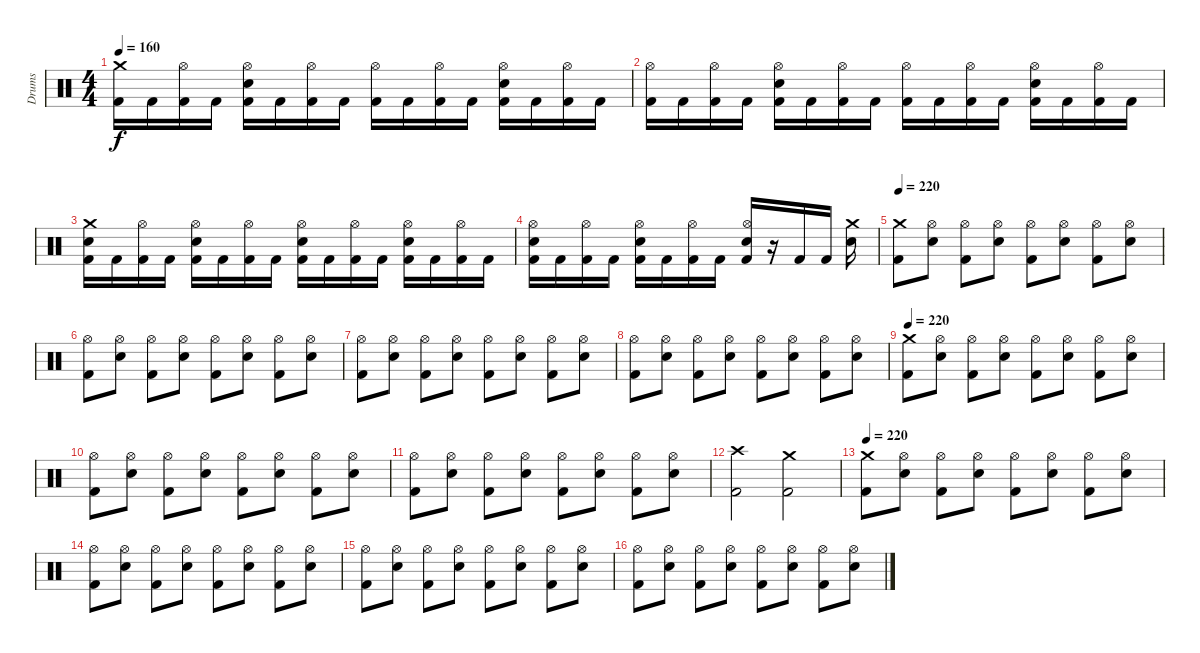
\track ("Drums" "Drums") {instrument percussion}
\staff {score}
\articulation defaults
\ts (4 4)
\tempo 160
\clef neutral
\ks c
("Crash medium (hit)" "Kick (hit) 2").16{dy f} "Kick (hit) 2".16 ("Hi-Hat (open)" "Kick (hit) 2").16 "Kick (hit) 2".16 ("Hi-Hat (open)" "Snare (hit) 2" "Kick (hit) 2").16 "Kick (hit) 2".16 ("Hi-Hat (open)" "Kick (hit) 2").16 "Kick (hit) 2".16 ("Hi-Hat (open)" "Kick (hit) 2").16 "Kick (hit) 2".16 ("Hi-Hat (open)" "Kick (hit) 2").16 "Kick (hit) 2".16 ("Hi-Hat (open)" "Snare (hit) 2" "Kick (hit) 2").16 "Kick (hit) 2".16 ("Hi-Hat (open)" "Kick (hit) 2").16 "Kick (hit) 2".16 |
("Hi-Hat (open)" "Kick (hit) 2").16 "Kick (hit) 2".16 ("Hi-Hat (open)" "Kick (hit) 2").16 "Kick (hit) 2".16 ("Hi-Hat (open)" "Snare (hit) 2" "Kick (hit) 2").16 "Kick (hit) 2".16 ("Hi-Hat (open)" "Kick (hit) 2").16 "Kick (hit) 2".16 ("Hi-Hat (open)" "Kick (hit) 2").16 "Kick (hit) 2".16 ("Hi-Hat (open)" "Kick (hit) 2").16 "Kick (hit) 2".16 ("Hi-Hat (open)" "Snare (hit) 2" "Kick (hit) 2").16 "Kick (hit) 2".16 ("Hi-Hat (open)" "Kick (hit) 2").16 "Kick (hit) 2".16 |
("Crash medium (hit)" "Snare (hit) 2" "Kick (hit) 2").16 "Kick (hit) 2".16 ("Hi-Hat (open)" "Kick (hit) 2").16 "Kick (hit) 2".16 ("Hi-Hat (open)" "Snare (hit) 2" "Kick (hit) 2").16 "Kick (hit) 2".16 ("Hi-Hat (open)" "Kick (hit) 2").16 "Kick (hit) 2".16 ("Hi-Hat (open)" "Snare (hit) 2" "Kick (hit) 2").16 "Kick (hit) 2".16 ("Hi-Hat (open)" "Kick (hit) 2").16 "Kick (hit) 2".16 ("Hi-Hat (open)" "Snare (hit) 2" "Kick (hit) 2").16 "Kick (hit) 2".16 ("Hi-Hat (open)" "Kick (hit) 2").16 "Kick (hit) 2".16 |
("Hi-Hat (open)" "Snare (hit) 2" "Kick (hit) 2").16 "Kick (hit) 2".16 ("Hi-Hat (open)" "Kick (hit) 2").16 "Kick (hit) 2".16 ("Hi-Hat (open)" "Snare (hit) 2" "Kick (hit) 2").16 "Kick (hit) 2".16 ("Hi-Hat (open)" "Kick (hit) 2").16 "Kick (hit) 2".16 ("Hi-Hat (open)" "Snare (hit) 2" "Kick (hit) 2").16 r.16 "Kick (hit) 2".16 "Kick (hit) 2".16 ("Crash medium (hit)" "Snare (hit) 2").16 |
\tempo 220
("Crash medium (hit)" "Kick (hit) 2").8 ("Hi-Hat (open)" "Snare (hit) 2").8 ("Hi-Hat (open)" "Kick (hit) 2").8 ("Hi-Hat (open)" "Snare (hit) 2").8 ("Hi-Hat (open)" "Kick (hit) 2").8 ("Hi-Hat (open)" "Snare (hit) 2").8 ("Hi-Hat (open)" "Kick (hit) 2").8 ("Hi-Hat (open)" "Snare (hit) 2").8 |
("Hi-Hat (open)" "Kick (hit) 2").8 ("Hi-Hat (open)" "Snare (hit) 2").8 ("Hi-Hat (open)" "Kick (hit) 2").8 ("Hi-Hat (open)" "Snare (hit) 2").8 ("Hi-Hat (open)" "Kick (hit) 2").8 ("Hi-Hat (open)" "Snare (hit) 2").8 ("Hi-Hat (open)" "Kick (hit) 2").8 ("Hi-Hat (open)" "Snare (hit) 2").8 |
("Hi-Hat (open)" "Kick (hit) 2").8 ("Hi-Hat (open)" "Snare (hit) 2").8 ("Hi-Hat (open)" "Kick (hit) 2").8 ("Hi-Hat (open)" "Snare (hit) 2").8 ("Hi-Hat (open)" "Kick (hit) 2").8 ("Hi-Hat (open)" "Snare (hit) 2").8 ("Hi-Hat (open)" "Kick (hit) 2").8 ("Hi-Hat (open)" "Snare (hit) 2").8 |
("Hi-Hat (open)" "Kick (hit) 2").8 ("Hi-Hat (open)" "Snare (hit) 2").8 ("Hi-Hat (open)" "Kick (hit) 2").8 ("Hi-Hat (open)" "Snare (hit) 2").8 ("Hi-Hat (open)" "Kick (hit) 2").8 ("Hi-Hat (open)" "Snare (hit) 2").8 ("Hi-Hat (open)" "Kick (hit) 2").8 ("Hi-Hat (open)" "Snare (hit) 2").8 |
\tempo 220
("Crash medium (hit)" "Kick (hit) 2").8 ("Hi-Hat (open)" "Snare (hit) 2").8 ("Hi-Hat (open)" "Kick (hit) 2").8 ("Hi-Hat (open)" "Snare (hit) 2").8 ("Hi-Hat (open)" "Kick (hit) 2").8 ("Hi-Hat (open)" "Snare (hit) 2").8 ("Hi-Hat (open)" "Kick (hit) 2").8 ("Hi-Hat (open)" "Snare (hit) 2").8 |
("Hi-Hat (open)" "Kick (hit) 2").8 ("Hi-Hat (open)" "Snare (hit) 2").8 ("Hi-Hat (open)" "Kick (hit) 2").8 ("Hi-Hat (open)" "Snare (hit) 2").8 ("Hi-Hat (open)" "Kick (hit) 2").8 ("Hi-Hat (open)" "Snare (hit) 2").8 ("Hi-Hat (open)" "Kick (hit) 2").8 ("Hi-Hat (open)" "Snare (hit) 2").8 |
("Hi-Hat (open)" "Kick (hit) 2").8 ("Hi-Hat (open)" "Snare (hit) 2").8 ("Hi-Hat (open)" "Kick (hit) 2").8 ("Hi-Hat (open)" "Snare (hit) 2").8 ("Hi-Hat (open)" "Kick (hit) 2").8 ("Hi-Hat (open)" "Snare (hit) 2").8 ("Hi-Hat (open)" "Kick (hit) 2").8 ("Hi-Hat (open)" "Snare (hit) 2").8 |
("Crash high (hit)" "Kick (hit) 2").2 ("Crash medium (hit)" "Kick (hit) 2").2 |
\tempo 220
("Crash medium (hit)" "Kick (hit) 2").8 ("Hi-Hat (open)" "Snare (hit) 2").8 ("Hi-Hat (open)" "Kick (hit) 2").8 ("Hi-Hat (open)" "Snare (hit) 2").8 ("Hi-Hat (open)" "Kick (hit) 2").8 ("Hi-Hat (open)" "Snare (hit) 2").8 ("Hi-Hat (open)" "Kick (hit) 2").8 ("Hi-Hat (open)" "Snare (hit) 2").8 |
("Hi-Hat (open)" "Kick (hit) 2").8 ("Hi-Hat (open)" "Snare (hit) 2").8 ("Hi-Hat (open)" "Kick (hit) 2").8 ("Hi-Hat (open)" "Snare (hit) 2").8 ("Hi-Hat (open)" "Kick (hit) 2").8 ("Hi-Hat (open)" "Snare (hit) 2").8 ("Hi-Hat (open)" "Kick (hit) 2").8 ("Hi-Hat (open)" "Snare (hit) 2").8 |
("Hi-Hat (open)" "Kick (hit) 2").8 ("Hi-Hat (open)" "Snare (hit) 2").8 ("Hi-Hat (open)" "Kick (hit) 2").8 ("Hi-Hat (open)" "Snare (hit) 2").8 ("Hi-Hat (open)" "Kick (hit) 2").8 ("Hi-Hat (open)" "Snare (hit) 2").8 ("Hi-Hat (open)" "Kick (hit) 2").8 ("Hi-Hat (open)" "Snare (hit) 2").8 |
("Hi-Hat (open)" "Kick (hit) 2").8 ("Hi-Hat (open)" "Snare (hit) 2").8 ("Hi-Hat (open)" "Kick (hit) 2").8 ("Hi-Hat (open)" "Snare (hit) 2").8 ("Hi-Hat (open)" "Kick (hit) 2").8 ("Hi-Hat (open)" "Snare (hit) 2").8 ("Hi-Hat (open)" "Kick (hit) 2").8 ("Hi-Hat (open)" "Snare (hit) 2").8
